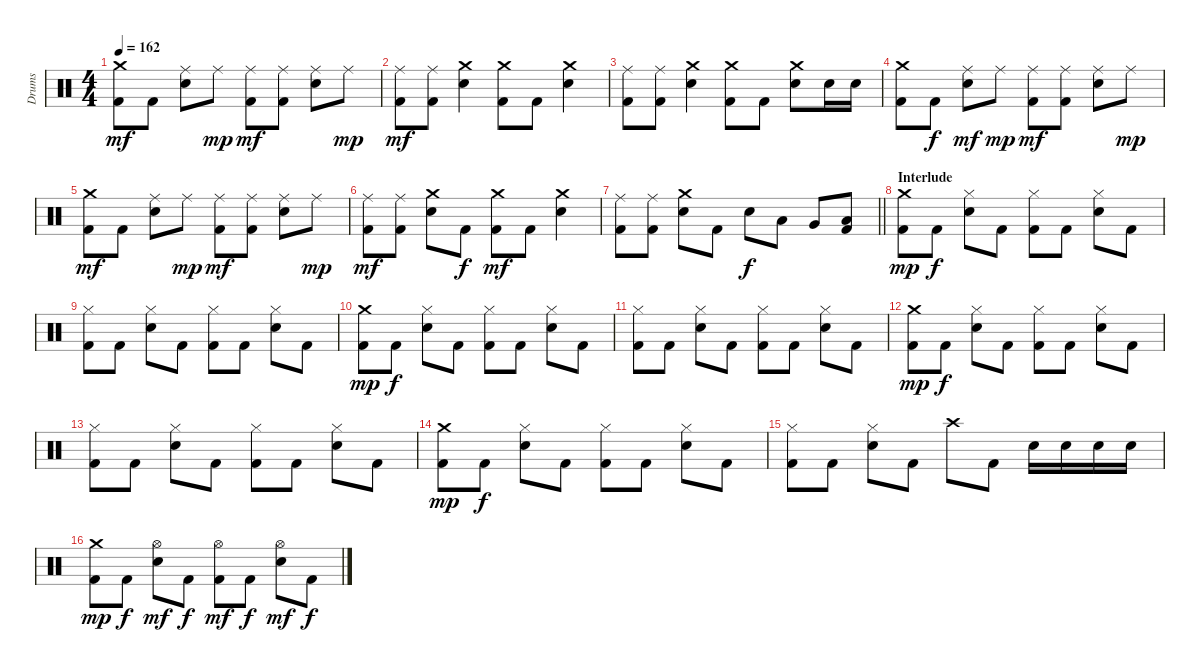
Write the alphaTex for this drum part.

\track ("Drums" "Drums") {instrument percussion}
\staff {score}
\articulation defaults
\ts (4 4)
\tempo 162
\clef neutral
\ks c
("Crash medium (hit)" "Kick (hit) 2").8{dy mf} "Kick (hit) 2".8 ("Ride (middle)" "Electric Snare (hit)").8 "Ride (middle)".8{dy mp} ("Ride (middle)" "Kick (hit) 2").8{dy mf} ("Ride (middle)" "Kick (hit) 2").8 ("Ride (middle)" "Electric Snare (hit)").8 "Ride (middle)".8{dy mp} |
("Ride (middle)" "Kick (hit) 2").8{dy mf} ("Ride (middle)" "Kick (hit) 2").8 ("Crash medium (hit)" "Electric Snare (hit)").4 ("Crash medium (hit)" "Kick (hit) 2").8 "Kick (hit) 2".8 ("Crash medium (hit)" "Electric Snare (hit)").4 |
("Ride (middle)" "Kick (hit) 2").8 ("Ride (middle)" "Kick (hit) 2").8 ("Crash medium (hit)" "Electric Snare (hit)").4 ("Crash medium (hit)" "Kick (hit) 2").8 "Kick (hit) 2".8 ("Crash medium (hit)" "Electric Snare (hit)").8 "Electric Snare (hit)".16 "Electric Snare (hit)".16 |
("Crash medium (hit)" "Kick (hit) 2").8 "Kick (hit) 2".8{dy f} ("Ride (middle)" "Electric Snare (hit)").8{dy mf} "Ride (middle)".8{dy mp} ("Ride (middle)" "Kick (hit) 2").8{dy mf} ("Ride (middle)" "Kick (hit) 2").8 ("Ride (middle)" "Electric Snare (hit)").8 "Ride (middle)".8{dy mp} |
("Crash medium (hit)" "Kick (hit) 2").8{dy mf} "Kick (hit) 2".8 ("Ride (middle)" "Electric Snare (hit)").8 "Ride (middle)".8{dy mp} ("Ride (middle)" "Kick (hit) 2").8{dy mf} ("Ride (middle)" "Kick (hit) 2").8 ("Ride (middle)" "Electric Snare (hit)").8 "Ride (middle)".8{dy mp} |
("Ride (middle)" "Kick (hit) 2").8{dy mf} ("Ride (middle)" "Kick (hit) 2").8 ("Crash medium (hit)" "Electric Snare (hit)").8 "Kick (hit) 2".8{dy f} ("Crash medium (hit)" "Kick (hit) 2").8{dy mf} "Kick (hit) 2".8 ("Crash medium (hit)" "Electric Snare (hit)").4 |
\barLineRight lightlight
("Ride (middle)" "Kick (hit) 2").8 ("Ride (middle)" "Kick (hit) 2").8 ("Crash medium (hit)" "Electric Snare (hit)").8 "Kick (hit) 2".8 "Electric Snare (hit)".8{dy f} "Low Tom (hit)".8 "Very Low Tom (hit)".8 ("Low Floor Tom (hit)" "Kick (hit) 2").8 |
\section ("" "Interlude")
("Crash medium (hit)" "Kick (hit) 2").8{dy mp} "Kick (hit) 2".8{dy f} ("Hi-Hat (closed)" "Electric Snare (hit)").8 "Kick (hit) 2".8 ("Hi-Hat (closed)" "Kick (hit) 2").8 "Kick (hit) 2".8 ("Hi-Hat (closed)" "Electric Snare (hit)").8 "Kick (hit) 2".8 |
("Hi-Hat (closed)" "Kick (hit) 2").8 "Kick (hit) 2".8 ("Hi-Hat (closed)" "Electric Snare (hit)").8 "Kick (hit) 2".8 ("Hi-Hat (closed)" "Kick (hit) 2").8 "Kick (hit) 2".8 ("Hi-Hat (closed)" "Electric Snare (hit)").8 "Kick (hit) 2".8 |
("Crash medium (hit)" "Kick (hit) 2").8{dy mp} "Kick (hit) 2".8{dy f} ("Hi-Hat (closed)" "Electric Snare (hit)").8 "Kick (hit) 2".8 ("Hi-Hat (closed)" "Kick (hit) 2").8 "Kick (hit) 2".8 ("Hi-Hat (closed)" "Electric Snare (hit)").8 "Kick (hit) 2".8 |
("Hi-Hat (closed)" "Kick (hit) 2").8 "Kick (hit) 2".8 ("Hi-Hat (closed)" "Electric Snare (hit)").8 "Kick (hit) 2".8 ("Hi-Hat (closed)" "Kick (hit) 2").8 "Kick (hit) 2".8 ("Hi-Hat (closed)" "Electric Snare (hit)").8 "Kick (hit) 2".8 |
("Crash medium (hit)" "Kick (hit) 2").8{dy mp} "Kick (hit) 2".8{dy f} ("Hi-Hat (closed)" "Electric Snare (hit)").8 "Kick (hit) 2".8 ("Hi-Hat (closed)" "Kick (hit) 2").8 "Kick (hit) 2".8 ("Hi-Hat (closed)" "Electric Snare (hit)").8 "Kick (hit) 2".8 |
("Hi-Hat (closed)" "Kick (hit) 2").8 "Kick (hit) 2".8 ("Hi-Hat (closed)" "Electric Snare (hit)").8 "Kick (hit) 2".8 ("Hi-Hat (closed)" "Kick (hit) 2").8 "Kick (hit) 2".8 ("Hi-Hat (closed)" "Electric Snare (hit)").8 "Kick (hit) 2".8 |
("Crash medium (hit)" "Kick (hit) 2").8{dy mp} "Kick (hit) 2".8{dy f} ("Hi-Hat (closed)" "Electric Snare (hit)").8 "Kick (hit) 2".8 ("Hi-Hat (closed)" "Kick (hit) 2").8 "Kick (hit) 2".8 ("Hi-Hat (closed)" "Electric Snare (hit)").8 "Kick (hit) 2".8 |
("Hi-Hat (closed)" "Kick (hit) 2").8 "Kick (hit) 2".8 ("Hi-Hat (closed)" "Electric Snare (hit)").8 "Kick (hit) 2".8 "Crash high (hit)".8 "Kick (hit) 2".8 "Electric Snare (hit)".16 "Electric Snare (hit)".16 "Electric Snare (hit)".16 "Electric Snare (hit)".16 |
("Crash medium (hit)" "Kick (hit) 2").8{dy mp} "Kick (hit) 2".8{dy f} ("Hi-Hat (open)" "Electric Snare (hit)").8{dy mf} "Kick (hit) 2".8{dy f} ("Hi-Hat (open)" "Kick (hit) 2").8{dy mf} "Kick (hit) 2".8{dy f} ("Hi-Hat (open)" "Electric Snare (hit)").8{dy mf} "Kick (hit) 2".8{dy f}
